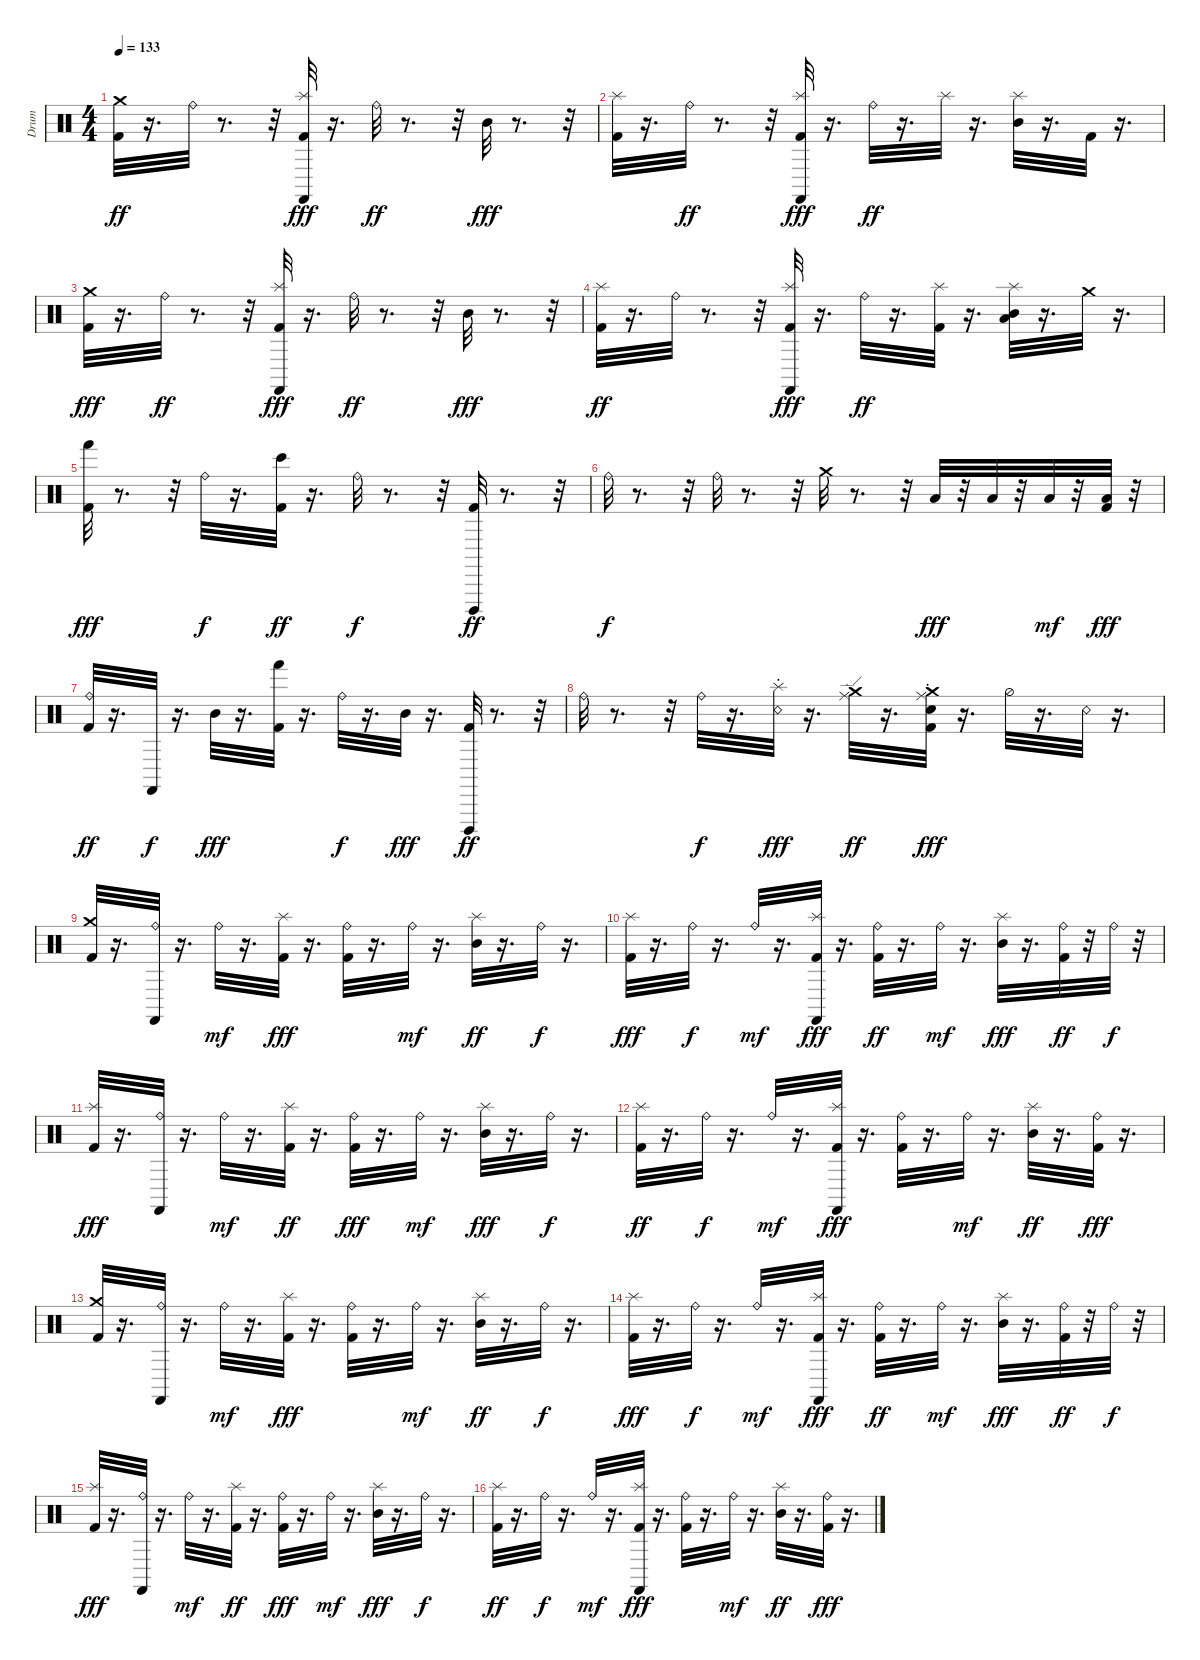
\track ("Drum" "Drum") {instrument percussion}
\staff {score}
\articulation defaults
\ts (4 4)
\tempo 133
\clef neutral
\ks c
("Kick (hit) 2" "Crash medium (hit)").32{dy ff} r.16{d} "Ride (bell)".32 r.8{d} r.32 ("Kick (hit) 2" "Splash (hit)" "Castanets (hit)").32{dy fff} r.16{d} "Ride (bell)".32{dy ff} r.8{d} r.32 "Mid Tom (hit)".32{dy fff} r.8{d} r.32 |
("Kick (hit) 2" "Splash (hit)").32 r.16{d} "Ride (bell)".32{dy ff} r.8{d} r.32 ("Kick (hit) 2" "Splash (hit)" "Castanets (hit)").32{dy fff} r.16{d} "Ride (bell)".32{dy ff} r.16{d} "Splash (hit)".32 r.16{d} ("Mid Tom (hit)" "Splash (hit)").32 r.16{d} "Kick (hit) 2".32 r.16{d} |
("Kick (hit) 2" "Crash medium (hit)").32{dy fff} r.16{d} "Ride (bell)".32{dy ff} r.8{d} r.32 ("Kick (hit) 2" "Splash (hit)" "Castanets (hit)").32{dy fff} r.16{d} "Ride (bell)".32{dy ff} r.8{d} r.32 "Mid Tom (hit)".32{dy fff} r.8{d} r.32 |
("Kick (hit) 2" "Splash (hit)").32{dy ff} r.16{d} "Ride (bell)".32 r.8{d} r.32 ("Kick (hit) 2" "Splash (hit)" "Castanets (hit)").32{dy fff} r.16{d} "Ride (bell)".32{dy ff} r.16{d} ("Kick (hit) 2" "Splash (hit)").32 r.16{d} ("Low Tom (hit)" "Mid Tom (hit)" "Splash (hit)").32 r.16{d} "Crash medium (hit)".32 r.16{d} |
("Kick (hit) 2" "Hand (hit)").32{dy fff} r.8{d} r.32 "Ride (bell)".32{dy f} r.16{d} ("Kick (hit) 2" "Bongo High (hit)").32{dy ff} r.16{d} "Ride (bell)".32{dy f} r.8{d} r.32 ("Kick (hit) 2" "Cuica (open)").32{dy ff} r.8{d} r.32 |
"Ride (bell)".32{dy f} r.8{d} r.32 "Ride (bell)".32 r.8{d} r.32 "Crash medium (hit)".32 r.8{d} r.32 "Low Tom (hit)".32{dy fff} r.32 "Low Tom (hit)".32 r.32 "Low Tom (hit)".32{dy mf} r.32 ("Kick (hit) 2" "Low Tom (hit)").32{dy fff} r.32 |
("Kick (hit) 2" "Ride (bell)").32{dy ff} r.16{d} "Castanets (hit)".32{dy f} r.16{d} "Mid Tom (hit)".32{dy fff} r.16{d} ("Kick (hit) 2" "Hand (hit)").32 r.16{d} "Ride (bell)".32{dy f} r.16{d} "Mid Tom (hit)".32{dy fff} r.16{d} ("Kick (hit) 2" "Cuica (open)").32{dy ff} r.8{d} r.32 |
"Ride (bell)".32 r.8{d} r.32 "Ride (bell)".32{dy f} r.16{d} ("Snare (rim shot)" "Splash (choke)").32{dy fff} r.16{d} ("Ride (edge)" "Crash medium (hit)").32{dy ff} r.16{d} ("Kick (hit) 2" "Snare (hit)" "Ride (choke)" "Crash medium (hit)").32{dy fff} r.16{d} "Hi-Hat (half)".32 r.16{d} "Snare (rim shot)".32 r.16{d} |
("Kick (hit) 2" "Crash medium (hit)").32 r.16{d} ("Ride (bell)" "Castanets (hit)").32 r.16{d} "Ride (bell)".32{dy mf} r.16{d} ("Kick (hit) 2" "Splash (hit)").32{dy fff} r.16{d} ("Kick (hit) 2" "Ride (bell)").32 r.16{d} "Ride (bell)".32{dy mf} r.16{d} ("Mid Tom (hit)" "Splash (hit)").32{dy ff} r.16{d} "Ride (bell)".32{dy f} r.16{d} |
("Kick (hit) 2" "Splash (hit)").32{dy fff} r.16{d} "Ride (bell)".32{dy f} r.16{d} "Ride (bell)".32{dy mf} r.16{d} ("Kick (hit) 2" "Splash (hit)" "Castanets (hit)").32{dy fff} r.16{d} ("Kick (hit) 2" "Ride (bell)").32{dy ff} r.16{d} "Ride (bell)".32{dy mf} r.16{d} ("Mid Tom (hit)" "Splash (hit)").32{dy fff} r.16{d} ("Kick (hit) 2" "Ride (bell)").32{dy ff} r.32 "Ride (bell)".32{dy f} r.32 |
("Kick (hit) 2" "Splash (hit)").32{dy fff} r.16{d} ("Ride (bell)" "Castanets (hit)").32 r.16{d} "Ride (bell)".32{dy mf} r.16{d} ("Kick (hit) 2" "Splash (hit)").32{dy ff} r.16{d} ("Kick (hit) 2" "Ride (bell)").32{dy fff} r.16{d} "Ride (bell)".32{dy mf} r.16{d} ("Mid Tom (hit)" "Splash (hit)").32{dy fff} r.16{d} "Ride (bell)".32{dy f} r.16{d} |
("Kick (hit) 2" "Splash (hit)").32{dy ff} r.16{d} "Ride (bell)".32{dy f} r.16{d} "Ride (bell)".32{dy mf} r.16{d} ("Kick (hit) 2" "Splash (hit)" "Castanets (hit)").32{dy fff} r.16{d} ("Kick (hit) 2" "Ride (bell)").32 r.16{d} "Ride (bell)".32{dy mf} r.16{d} ("Mid Tom (hit)" "Splash (hit)").32{dy ff} r.16{d} ("Kick (hit) 2" "Ride (bell)").32{dy fff} r.16{d} |
("Kick (hit) 2" "Crash medium (hit)").32 r.16{d} ("Ride (bell)" "Castanets (hit)").32 r.16{d} "Ride (bell)".32{dy mf} r.16{d} ("Kick (hit) 2" "Splash (hit)").32{dy fff} r.16{d} ("Kick (hit) 2" "Ride (bell)").32 r.16{d} "Ride (bell)".32{dy mf} r.16{d} ("Mid Tom (hit)" "Splash (hit)").32{dy ff} r.16{d} "Ride (bell)".32{dy f} r.16{d} |
("Kick (hit) 2" "Splash (hit)").32{dy fff} r.16{d} "Ride (bell)".32{dy f} r.16{d} "Ride (bell)".32{dy mf} r.16{d} ("Kick (hit) 2" "Splash (hit)" "Castanets (hit)").32{dy fff} r.16{d} ("Kick (hit) 2" "Ride (bell)").32{dy ff} r.16{d} "Ride (bell)".32{dy mf} r.16{d} ("Mid Tom (hit)" "Splash (hit)").32{dy fff} r.16{d} ("Kick (hit) 2" "Ride (bell)").32{dy ff} r.32 "Ride (bell)".32{dy f} r.32 |
("Kick (hit) 2" "Splash (hit)").32{dy fff} r.16{d} ("Ride (bell)" "Castanets (hit)").32 r.16{d} "Ride (bell)".32{dy mf} r.16{d} ("Kick (hit) 2" "Splash (hit)").32{dy ff} r.16{d} ("Kick (hit) 2" "Ride (bell)").32{dy fff} r.16{d} "Ride (bell)".32{dy mf} r.16{d} ("Mid Tom (hit)" "Splash (hit)").32{dy fff} r.16{d} "Ride (bell)".32{dy f} r.16{d} |
("Kick (hit) 2" "Splash (hit)").32{dy ff} r.16{d} "Ride (bell)".32{dy f} r.16{d} "Ride (bell)".32{dy mf} r.16{d} ("Kick (hit) 2" "Splash (hit)" "Castanets (hit)").32{dy fff} r.16{d} ("Kick (hit) 2" "Ride (bell)").32 r.16{d} "Ride (bell)".32{dy mf} r.16{d} ("Mid Tom (hit)" "Splash (hit)").32{dy ff} r.16{d} ("Kick (hit) 2" "Ride (bell)").32{dy fff} r.16{d}
